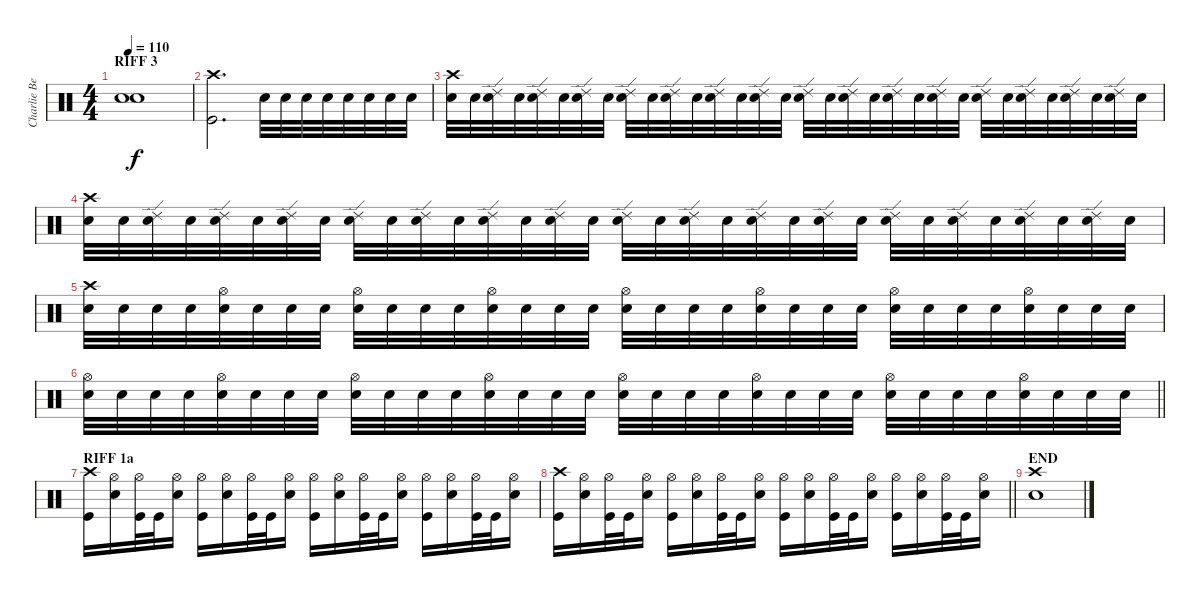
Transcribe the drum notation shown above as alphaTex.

\track ("Charlie Benante" "Charlie Be") {instrument percussion}
\staff {score}
\articulation defaults
\ts (4 4)
\section ("" "RIFF 3")
\tempo 110
\clef neutral
\ks c
("Snare (hit) 2" "Snare (hit) 2").1{dy f} |
("Crash high (hit)" "Kick (hit)").2{d} "Snare (hit) 2".32 "Snare (hit) 2".32 "Snare (hit) 2".32 "Snare (hit) 2".32 "Snare (hit) 2".32 "Snare (hit) 2".32 "Snare (hit) 2".32 "Snare (hit) 2".32 |
("Crash high (hit)" "Snare (hit) 2").32 "Snare (hit) 2".32 ("Ride (edge) 2" "Snare (hit) 2").32 "Snare (hit) 2".32 ("Ride (edge) 2" "Snare (hit) 2").32 "Snare (hit) 2".32 ("Ride (edge) 2" "Snare (hit) 2").32 "Snare (hit) 2".32 ("Ride (edge) 2" "Snare (hit) 2").32 "Snare (hit) 2".32 ("Ride (edge) 2" "Snare (hit) 2").32 "Snare (hit) 2".32 ("Ride (edge) 2" "Snare (hit) 2").32 "Snare (hit) 2".32 ("Ride (edge) 2" "Snare (hit) 2").32 "Snare (hit) 2".32 ("Ride (edge) 2" "Snare (hit) 2").32 "Snare (hit) 2".32 ("Ride (edge) 2" "Snare (hit) 2").32 "Snare (hit) 2".32 ("Ride (edge) 2" "Snare (hit) 2").32 "Snare (hit) 2".32 ("Ride (edge) 2" "Snare (hit) 2").32 "Snare (hit) 2".32 ("Ride (edge) 2" "Snare (hit) 2").32 "Snare (hit) 2".32 ("Ride (edge) 2" "Snare (hit) 2").32 "Snare (hit) 2".32 ("Ride (edge) 2" "Snare (hit) 2").32 "Snare (hit) 2".32 ("Ride (edge) 2" "Snare (hit) 2").32 "Snare (hit) 2".32 |
("Crash high (hit)" "Snare (hit) 2").32 "Snare (hit) 2".32 ("Ride (edge) 2" "Snare (hit) 2").32 "Snare (hit) 2".32 ("Ride (edge) 2" "Snare (hit) 2").32 "Snare (hit) 2".32 ("Ride (edge) 2" "Snare (hit) 2").32 "Snare (hit) 2".32 ("Ride (edge) 2" "Snare (hit) 2").32 "Snare (hit) 2".32 ("Ride (edge) 2" "Snare (hit) 2").32 "Snare (hit) 2".32 ("Ride (edge) 2" "Snare (hit) 2").32 "Snare (hit) 2".32 ("Ride (edge) 2" "Snare (hit) 2").32 "Snare (hit) 2".32 ("Ride (edge) 2" "Snare (hit) 2").32 "Snare (hit) 2".32 ("Ride (edge) 2" "Snare (hit) 2").32 "Snare (hit) 2".32 ("Ride (edge) 2" "Snare (hit) 2").32 "Snare (hit) 2".32 ("Ride (edge) 2" "Snare (hit) 2").32 "Snare (hit) 2".32 ("Ride (edge) 2" "Snare (hit) 2").32 "Snare (hit) 2".32 ("Ride (edge) 2" "Snare (hit) 2").32 "Snare (hit) 2".32 ("Ride (edge) 2" "Snare (hit) 2").32 "Snare (hit) 2".32 ("Ride (edge) 2" "Snare (hit) 2").32 "Snare (hit) 2".32 |
("Crash high (hit)" "Snare (hit) 2").32 "Snare (hit) 2".32 "Snare (hit) 2".32 "Snare (hit) 2".32 ("Hi-Hat (open)" "Snare (hit) 2").32 "Snare (hit) 2".32 "Snare (hit) 2".32 "Snare (hit) 2".32 ("Hi-Hat (open)" "Snare (hit) 2").32 "Snare (hit) 2".32 "Snare (hit) 2".32 "Snare (hit) 2".32 ("Hi-Hat (open)" "Snare (hit) 2").32 "Snare (hit) 2".32 "Snare (hit) 2".32 "Snare (hit) 2".32 ("Hi-Hat (open)" "Snare (hit) 2").32 "Snare (hit) 2".32 "Snare (hit) 2".32 "Snare (hit) 2".32 ("Hi-Hat (open)" "Snare (hit) 2").32 "Snare (hit) 2".32 "Snare (hit) 2".32 "Snare (hit) 2".32 ("Hi-Hat (open)" "Snare (hit) 2").32 "Snare (hit) 2".32 "Snare (hit) 2".32 "Snare (hit) 2".32 ("Hi-Hat (open)" "Snare (hit) 2").32 "Snare (hit) 2".32 "Snare (hit) 2".32 "Snare (hit) 2".32 |
\barLineRight lightlight
("Hi-Hat (open)" "Snare (hit) 2").32 "Snare (hit) 2".32 "Snare (hit) 2".32 "Snare (hit) 2".32 ("Hi-Hat (open)" "Snare (hit) 2").32 "Snare (hit) 2".32 "Snare (hit) 2".32 "Snare (hit) 2".32 ("Hi-Hat (open)" "Snare (hit) 2").32 "Snare (hit) 2".32 "Snare (hit) 2".32 "Snare (hit) 2".32 ("Hi-Hat (open)" "Snare (hit) 2").32 "Snare (hit) 2".32 "Snare (hit) 2".32 "Snare (hit) 2".32 ("Hi-Hat (open)" "Snare (hit) 2").32 "Snare (hit) 2".32 "Snare (hit) 2".32 "Snare (hit) 2".32 ("Hi-Hat (open)" "Snare (hit) 2").32 "Snare (hit) 2".32 "Snare (hit) 2".32 "Snare (hit) 2".32 ("Hi-Hat (open)" "Snare (hit) 2").32 "Snare (hit) 2".32 "Snare (hit) 2".32 "Snare (hit) 2".32 ("Hi-Hat (open)" "Snare (hit) 2").32 "Snare (hit) 2".32 "Snare (hit) 2".32 "Snare (hit) 2".32 |
\section ("" "RIFF 1a")
("Crash high (hit)" "Kick (hit)").16 ("Hi-Hat (open)" "Snare (hit) 2").16 ("Hi-Hat (open)" "Kick (hit)").32 "Kick (hit)".32 ("Hi-Hat (open)" "Snare (hit) 2").16 ("Hi-Hat (open)" "Kick (hit)").16 ("Hi-Hat (open)" "Snare (hit) 2").16 ("Hi-Hat (open)" "Kick (hit)").32 "Kick (hit)".32 ("Hi-Hat (open)" "Snare (hit) 2").16 ("Hi-Hat (open)" "Kick (hit)").16 ("Hi-Hat (open)" "Snare (hit) 2").16 ("Hi-Hat (open)" "Kick (hit)").32 "Kick (hit)".32 ("Hi-Hat (open)" "Snare (hit) 2").16 ("Hi-Hat (open)" "Kick (hit)").16 ("Hi-Hat (open)" "Snare (hit) 2").16 ("Hi-Hat (open)" "Kick (hit)").32 "Kick (hit)".32 ("Hi-Hat (open)" "Snare (hit) 2").16 |
\barLineRight lightlight
("Crash high (hit)" "Kick (hit)").16 ("Hi-Hat (open)" "Snare (hit) 2").16 ("Hi-Hat (open)" "Kick (hit)").32 "Kick (hit)".32 ("Hi-Hat (open)" "Snare (hit) 2").16 ("Hi-Hat (open)" "Kick (hit)").16 ("Hi-Hat (open)" "Snare (hit) 2").16 ("Hi-Hat (open)" "Kick (hit)").32 "Kick (hit)".32 ("Hi-Hat (open)" "Snare (hit) 2").16 ("Hi-Hat (open)" "Kick (hit)").16 ("Hi-Hat (open)" "Snare (hit) 2").16 ("Hi-Hat (open)" "Kick (hit)").32 "Kick (hit)".32 ("Hi-Hat (open)" "Snare (hit) 2").16 ("Hi-Hat (open)" "Kick (hit)").16 ("Hi-Hat (open)" "Snare (hit) 2").16 ("Hi-Hat (open)" "Kick (hit)").32 "Kick (hit)".32 ("Hi-Hat (open)" "Snare (hit) 2").16 |
\section ("" "END")
("Crash high (hit)" "Snare (hit) 2").1
